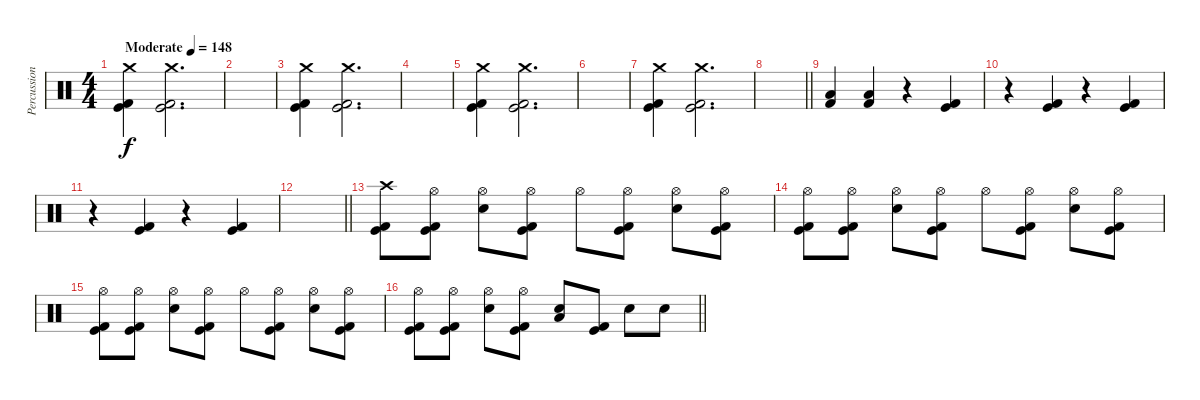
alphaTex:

\track ("Percussion" "Percussion") {instrument percussion}
\staff {score}
\articulation defaults
\ts (4 4)
\tempo (148 "Moderate")
\clef neutral
\ks c
("Crash medium (hit)" "Kick (hit)" "Kick (hit) 2").4{dy f} ("Crash medium (hit)" "Kick (hit)" "Kick (hit) 2").2{d} |
|
("Crash medium (hit)" "Kick (hit)" "Kick (hit) 2").4 ("Crash medium (hit)" "Kick (hit)" "Kick (hit) 2").2{d} |
|
("Crash medium (hit)" "Kick (hit)" "Kick (hit) 2").4 ("Crash medium (hit)" "Kick (hit)" "Kick (hit) 2").2{d} |
|
("Crash medium (hit)" "Kick (hit)" "Kick (hit) 2").4 ("Crash medium (hit)" "Kick (hit)" "Kick (hit) 2").2{d} |
\barLineRight lightlight
|
\section ("" "")
("Low Floor Tom (hit)" "Kick (hit) 2").4 ("Low Floor Tom (hit)" "Kick (hit) 2").4 r.4 ("Kick (hit)" "Kick (hit) 2").4 |
r.4 ("Kick (hit)" "Kick (hit) 2").4 r.4 ("Kick (hit)" "Kick (hit) 2").4 |
r.4 ("Kick (hit)" "Kick (hit) 2").4 r.4 ("Kick (hit)" "Kick (hit) 2").4 |
\barLineRight lightlight
|
("Crash high (hit)" "Kick (hit)" "Kick (hit) 2").8 ("Hi-Hat (open)" "Kick (hit)" "Kick (hit) 2").8 ("Hi-Hat (open)" "Electric Snare (hit)").8 ("Hi-Hat (open)" "Kick (hit)" "Kick (hit) 2").8 "Hi-Hat (open)".8 ("Hi-Hat (open)" "Kick (hit)" "Kick (hit) 2").8 ("Hi-Hat (open)" "Electric Snare (hit)").8 ("Hi-Hat (open)" "Kick (hit)" "Kick (hit) 2").8 |
("Hi-Hat (open)" "Kick (hit)" "Kick (hit) 2").8 ("Hi-Hat (open)" "Kick (hit)" "Kick (hit) 2").8 ("Hi-Hat (open)" "Electric Snare (hit)").8 ("Hi-Hat (open)" "Kick (hit)" "Kick (hit) 2").8 "Hi-Hat (open)".8 ("Hi-Hat (open)" "Kick (hit)" "Kick (hit) 2").8 ("Hi-Hat (open)" "Electric Snare (hit)").8 ("Hi-Hat (open)" "Kick (hit)" "Kick (hit) 2").8 |
("Hi-Hat (open)" "Kick (hit)" "Kick (hit) 2").8 ("Hi-Hat (open)" "Kick (hit)" "Kick (hit) 2").8 ("Hi-Hat (open)" "Electric Snare (hit)").8 ("Hi-Hat (open)" "Kick (hit)" "Kick (hit) 2").8 "Hi-Hat (open)".8 ("Hi-Hat (open)" "Kick (hit)" "Kick (hit) 2").8 ("Hi-Hat (open)" "Electric Snare (hit)").8 ("Hi-Hat (open)" "Kick (hit)" "Kick (hit) 2").8 |
\barLineRight lightlight
("Hi-Hat (open)" "Kick (hit)" "Kick (hit) 2").8 ("Hi-Hat (open)" "Kick (hit)" "Kick (hit) 2").8 ("Hi-Hat (open)" "Electric Snare (hit)").8 ("Hi-Hat (open)" "Kick (hit)" "Kick (hit) 2").8 ("Low Tom (hit)" "Electric Snare (hit)").8 ("Kick (hit)" "Kick (hit) 2").8 "Electric Snare (hit)".8 "Electric Snare (hit)".8
